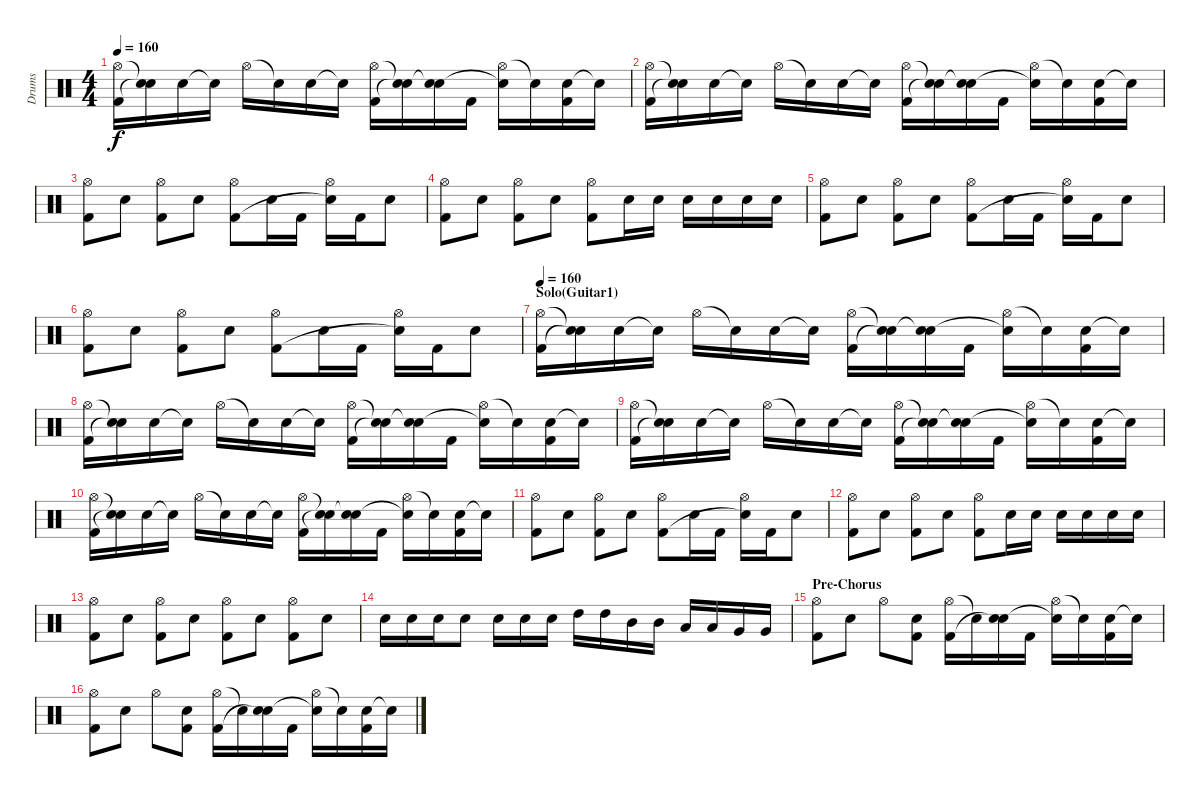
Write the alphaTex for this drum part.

\track ("Drums" "Drums") {instrument percussion}
\staff {score}
\articulation defaults
\ts (4 4)
\tempo 160
\clef neutral
\ks c
("Hi-Hat (open)" "Kick (hit) 2").16{dy f} ("Snare (hit)"{t} "Snare (hit)"{t}).16 "Electric Snare (hit)".16 "Snare (hit)"{t}.16 "Hi-Hat (open)".16 "Snare (hit)"{t}.16 "Electric Snare (hit)".16 "Snare (hit)"{t}.16 ("Hi-Hat (open)" "Kick (hit) 2").16 ("Snare (hit)"{t} "Snare (hit)"{t}).16 ("Electric Snare (hit)" "Snare (hit)"{t}).16 "Kick (hit) 2".16 ("Hi-Hat (open)" "Snare (hit)"{t}).16 "Snare (hit)"{t}.16 ("Electric Snare (hit)" "Kick (hit) 2").16 "Snare (hit)"{t}.16 |
("Hi-Hat (open)" "Kick (hit) 2").16 ("Snare (hit)"{t} "Snare (hit)"{t}).16 "Electric Snare (hit)".16 "Snare (hit)"{t}.16 "Hi-Hat (open)".16 "Snare (hit)"{t}.16 "Electric Snare (hit)".16 "Snare (hit)"{t}.16 ("Hi-Hat (open)" "Kick (hit) 2").16 ("Snare (hit)"{t} "Snare (hit)"{t}).16 ("Electric Snare (hit)" "Snare (hit)"{t}).16 "Kick (hit) 2".16 ("Hi-Hat (open)" "Snare (hit)"{t}).16 "Snare (hit)"{t}.16 ("Electric Snare (hit)" "Kick (hit) 2").16 "Snare (hit)"{t}.16 |
("Hi-Hat (open)" "Kick (hit) 2").8 "Electric Snare (hit)".8 ("Hi-Hat (open)" "Kick (hit) 2").8 "Electric Snare (hit)".8 ("Hi-Hat (open)" "Kick (hit) 2").8 "Electric Snare (hit)".16 "Kick (hit) 2".16 ("Hi-Hat (open)" "Snare (hit)"{t}).16 "Kick (hit) 2".16 "Electric Snare (hit)".8 |
("Hi-Hat (open)" "Kick (hit) 2").8 "Electric Snare (hit)".8 ("Hi-Hat (open)" "Kick (hit) 2").8 "Electric Snare (hit)".8 ("Hi-Hat (open)" "Kick (hit) 2").8 "Electric Snare (hit)".16 "Electric Snare (hit)".16 "Electric Snare (hit)".16 "Electric Snare (hit)".16 "Electric Snare (hit)".16 "Electric Snare (hit)".16 |
("Hi-Hat (open)" "Kick (hit) 2").8 "Electric Snare (hit)".8 ("Hi-Hat (open)" "Kick (hit) 2").8 "Electric Snare (hit)".8 ("Hi-Hat (open)" "Kick (hit) 2").8 "Electric Snare (hit)".16 "Kick (hit) 2".16 ("Hi-Hat (open)" "Snare (hit)"{t}).16 "Kick (hit) 2".16 "Electric Snare (hit)".8 |
("Hi-Hat (open)" "Kick (hit) 2").8 "Electric Snare (hit)".8 ("Hi-Hat (open)" "Kick (hit) 2").8 "Electric Snare (hit)".8 ("Hi-Hat (open)" "Kick (hit) 2").8 "Electric Snare (hit)".16 "Kick (hit) 2".16 ("Hi-Hat (open)" "Snare (hit)"{t}).16 "Kick (hit) 2".16 "Electric Snare (hit)".8 |
\section ("" "Solo(Guitar1)")
\tempo 160
("Hi-Hat (open)" "Kick (hit) 2").16 ("Snare (hit)"{t} "Snare (hit)"{t}).16 "Electric Snare (hit)".16 "Snare (hit)"{t}.16 "Hi-Hat (open)".16 "Snare (hit)"{t}.16 "Electric Snare (hit)".16 "Snare (hit)"{t}.16 ("Hi-Hat (open)" "Kick (hit) 2").16 ("Snare (hit)"{t} "Snare (hit)"{t}).16 ("Electric Snare (hit)" "Snare (hit)"{t}).16 "Kick (hit) 2".16 ("Hi-Hat (open)" "Snare (hit)"{t}).16 "Snare (hit)"{t}.16 ("Electric Snare (hit)" "Kick (hit) 2").16 "Snare (hit)"{t}.16 |
("Hi-Hat (open)" "Kick (hit) 2").16 ("Snare (hit)"{t} "Snare (hit)"{t}).16 "Electric Snare (hit)".16 "Snare (hit)"{t}.16 "Hi-Hat (open)".16 "Snare (hit)"{t}.16 "Electric Snare (hit)".16 "Snare (hit)"{t}.16 ("Hi-Hat (open)" "Kick (hit) 2").16 ("Snare (hit)"{t} "Snare (hit)"{t}).16 ("Electric Snare (hit)" "Snare (hit)"{t}).16 "Kick (hit) 2".16 ("Hi-Hat (open)" "Snare (hit)"{t}).16 "Snare (hit)"{t}.16 ("Electric Snare (hit)" "Kick (hit) 2").16 "Snare (hit)"{t}.16 |
("Hi-Hat (open)" "Kick (hit) 2").16 ("Snare (hit)"{t} "Snare (hit)"{t}).16 "Electric Snare (hit)".16 "Snare (hit)"{t}.16 "Hi-Hat (open)".16 "Snare (hit)"{t}.16 "Electric Snare (hit)".16 "Snare (hit)"{t}.16 ("Hi-Hat (open)" "Kick (hit) 2").16 ("Snare (hit)"{t} "Snare (hit)"{t}).16 ("Electric Snare (hit)" "Snare (hit)"{t}).16 "Kick (hit) 2".16 ("Hi-Hat (open)" "Snare (hit)"{t}).16 "Snare (hit)"{t}.16 ("Electric Snare (hit)" "Kick (hit) 2").16 "Snare (hit)"{t}.16 |
("Hi-Hat (open)" "Kick (hit) 2").16 ("Snare (hit)"{t} "Snare (hit)"{t}).16 "Electric Snare (hit)".16 "Snare (hit)"{t}.16 "Hi-Hat (open)".16 "Snare (hit)"{t}.16 "Electric Snare (hit)".16 "Snare (hit)"{t}.16 ("Hi-Hat (open)" "Kick (hit) 2").16 ("Snare (hit)"{t} "Snare (hit)"{t}).16 ("Electric Snare (hit)" "Snare (hit)"{t}).16 "Kick (hit) 2".16 ("Hi-Hat (open)" "Snare (hit)"{t}).16 "Snare (hit)"{t}.16 ("Electric Snare (hit)" "Kick (hit) 2").16 "Snare (hit)"{t}.16 |
("Hi-Hat (open)" "Kick (hit) 2").8 "Electric Snare (hit)".8 ("Hi-Hat (open)" "Kick (hit) 2").8 "Electric Snare (hit)".8 ("Hi-Hat (open)" "Kick (hit) 2").8 "Electric Snare (hit)".16 "Kick (hit) 2".16 ("Hi-Hat (open)" "Snare (hit)"{t}).16 "Kick (hit) 2".16 "Electric Snare (hit)".8 |
("Hi-Hat (open)" "Kick (hit) 2").8 "Electric Snare (hit)".8 ("Hi-Hat (open)" "Kick (hit) 2").8 "Electric Snare (hit)".8 ("Hi-Hat (open)" "Kick (hit) 2").8 "Electric Snare (hit)".16 "Electric Snare (hit)".16 "Electric Snare (hit)".16 "Electric Snare (hit)".16 "Electric Snare (hit)".16 "Electric Snare (hit)".16 |
("Hi-Hat (open)" "Kick (hit) 2").8 "Electric Snare (hit)".8 ("Hi-Hat (open)" "Kick (hit) 2").8 "Electric Snare (hit)".8 ("Hi-Hat (open)" "Kick (hit) 2").8 "Electric Snare (hit)".8 ("Hi-Hat (open)" "Kick (hit) 2").8 "Electric Snare (hit)".8 |
"Electric Snare (hit)".16 "Electric Snare (hit)".16 "Electric Snare (hit)".16 "Electric Snare (hit)".8 "Electric Snare (hit)".16 "Electric Snare (hit)".16 "Electric Snare (hit)".16 "High Tom (hit)".16 "High Tom (hit)".16 "Mid Tom (hit)".16 "Mid Tom (hit)".16 "Low Tom (hit)".16 "Low Tom (hit)".16 "Very Low Tom (hit)".16 "Very Low Tom (hit)".16 |
\section ("" "Pre-Chorus")
("Hi-Hat (open)" "Kick (hit) 2").8 "Electric Snare (hit)".8 "Hi-Hat (open)".8 ("Electric Snare (hit)" "Kick (hit) 2").8 ("Hi-Hat (open)" "Kick (hit) 2").16 "Snare (hit)"{t}.16 ("Electric Snare (hit)" "Snare (hit)"{t}).16 "Kick (hit) 2".16 ("Hi-Hat (open)" "Snare (hit)"{t}).16 "Snare (hit)"{t}.16 ("Electric Snare (hit)" "Kick (hit) 2").16 "Snare (hit)"{t}.16 |
("Hi-Hat (open)" "Kick (hit) 2").8 "Electric Snare (hit)".8 "Hi-Hat (open)".8 ("Electric Snare (hit)" "Kick (hit) 2").8 ("Hi-Hat (open)" "Kick (hit) 2").16 "Snare (hit)"{t}.16 ("Electric Snare (hit)" "Snare (hit)"{t}).16 "Kick (hit) 2".16 ("Hi-Hat (open)" "Snare (hit)"{t}).16 "Snare (hit)"{t}.16 ("Electric Snare (hit)" "Kick (hit) 2").16 "Snare (hit)"{t}.16
